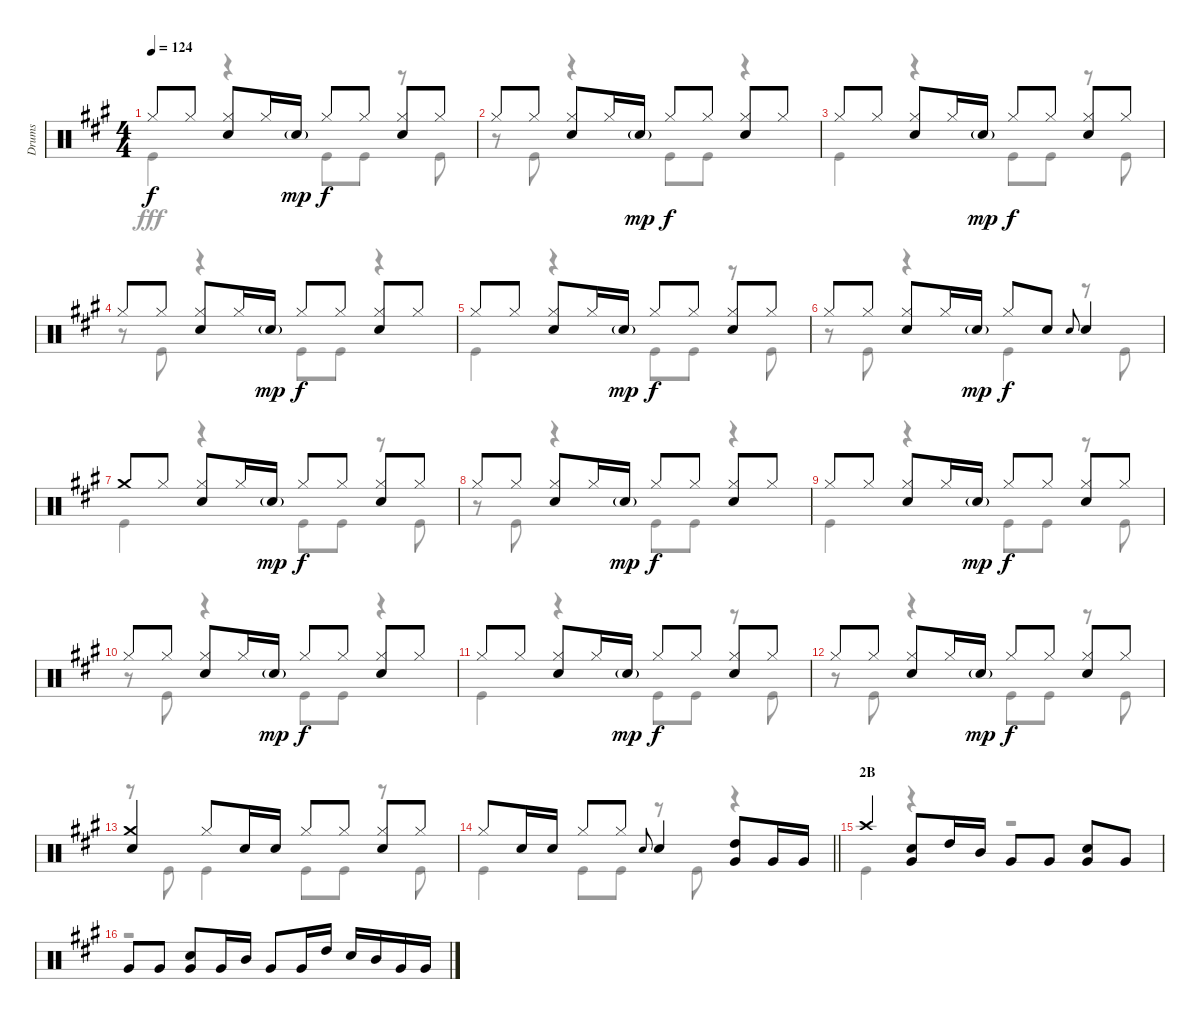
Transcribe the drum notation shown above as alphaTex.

\track ("Drums" "Drums") {instrument percussion}
\staff {score}
\articulation defaults
\voice
\ts (4 4)
\tempo 124
\clef neutral
\ks a "Hi-Hat (closed)".8{dy f} "Hi-Hat (closed)".8
("Hi-Hat (closed)" "Snare (hit) 2").8 "Hi-Hat (closed)".16 "Snare (hit) 2"{g}.16{dy mp} "Hi-Hat (closed)".8{dy f} "Hi-Hat (closed)".8 ("Hi-Hat (closed)" "Snare (hit) 2").8 "Hi-Hat (closed)".8 |
"Hi-Hat (closed)".8 "Hi-Hat (closed)".8 ("Hi-Hat (closed)" "Snare (hit) 2").8 "Hi-Hat (closed)".16 "Snare (hit) 2"{g}.16{dy mp} "Hi-Hat (closed)".8{dy f} "Hi-Hat (closed)".8 ("Hi-Hat (closed)" "Snare (hit) 2").8 "Hi-Hat (closed)".8 |
"Hi-Hat (closed)".8 "Hi-Hat (closed)".8 ("Hi-Hat (closed)" "Snare (hit) 2").8 "Hi-Hat (closed)".16 "Snare (hit) 2"{g}.16{dy mp} "Hi-Hat (closed)".8{dy f} "Hi-Hat (closed)".8 ("Hi-Hat (closed)" "Snare (hit) 2").8 "Hi-Hat (closed)".8 |
"Hi-Hat (closed)".8 "Hi-Hat (closed)".8 ("Hi-Hat (closed)" "Snare (hit) 2").8 "Hi-Hat (closed)".16 "Snare (hit) 2"{g}.16{dy mp} "Hi-Hat (closed)".8{dy f} "Hi-Hat (closed)".8 ("Hi-Hat (closed)" "Snare (hit) 2").8 "Hi-Hat (closed)".8 |
"Hi-Hat (closed)".8 "Hi-Hat (closed)".8 ("Hi-Hat (closed)" "Snare (hit) 2").8 "Hi-Hat (closed)".16 "Snare (hit) 2"{g}.16{dy mp} "Hi-Hat (closed)".8{dy f} "Hi-Hat (closed)".8 ("Hi-Hat (closed)" "Snare (hit) 2").8 "Hi-Hat (closed)".8 |
"Hi-Hat (closed)".8 "Hi-Hat (closed)".8 ("Hi-Hat (closed)" "Snare (hit) 2").8 "Hi-Hat (closed)".16 "Snare (hit) 2"{g}.16{dy mp} "Hi-Hat (closed)".8{dy f} "Snare (hit) 2".8 "Snare (hit) 2".8{gr onbeat} "Snare (hit) 2".4 |
"Crash medium (hit)".8 "Hi-Hat (closed)".8 ("Hi-Hat (closed)" "Snare (hit) 2").8 "Hi-Hat (closed)".16 "Snare (hit) 2"{g}.16{dy mp} "Hi-Hat (closed)".8{dy f} "Hi-Hat (closed)".8 ("Hi-Hat (closed)" "Snare (hit) 2").8 "Hi-Hat (closed)".8 |
"Hi-Hat (closed)".8 "Hi-Hat (closed)".8 ("Hi-Hat (closed)" "Snare (hit) 2").8 "Hi-Hat (closed)".16 "Snare (hit) 2"{g}.16{dy mp} "Hi-Hat (closed)".8{dy f} "Hi-Hat (closed)".8 ("Hi-Hat (closed)" "Snare (hit) 2").8 "Hi-Hat (closed)".8 |
"Hi-Hat (closed)".8 "Hi-Hat (closed)".8 ("Hi-Hat (closed)" "Snare (hit) 2").8 "Hi-Hat (closed)".16 "Snare (hit) 2"{g}.16{dy mp} "Hi-Hat (closed)".8{dy f} "Hi-Hat (closed)".8 ("Hi-Hat (closed)" "Snare (hit) 2").8 "Hi-Hat (closed)".8 |
"Hi-Hat (closed)".8 "Hi-Hat (closed)".8 ("Hi-Hat (closed)" "Snare (hit) 2").8 "Hi-Hat (closed)".16 "Snare (hit) 2"{g}.16{dy mp} "Hi-Hat (closed)".8{dy f} "Hi-Hat (closed)".8 ("Hi-Hat (closed)" "Snare (hit) 2").8 "Hi-Hat (closed)".8 |
"Hi-Hat (closed)".8 "Hi-Hat (closed)".8 ("Hi-Hat (closed)" "Snare (hit) 2").8 "Hi-Hat (closed)".16 "Snare (hit) 2"{g}.16{dy mp} "Hi-Hat (closed)".8{dy f} "Hi-Hat (closed)".8 ("Hi-Hat (closed)" "Snare (hit) 2").8 "Hi-Hat (closed)".8 |
"Hi-Hat (closed)".8 "Hi-Hat (closed)".8 ("Hi-Hat (closed)" "Snare (hit) 2").8 "Hi-Hat (closed)".16 "Snare (hit) 2"{g}.16{dy mp} "Hi-Hat (closed)".8{dy f} "Hi-Hat (closed)".8 ("Hi-Hat (closed)" "Snare (hit) 2").8 "Hi-Hat (closed)".8 |
("Crash medium (hit)" "Snare (hit) 2").4 "Hi-Hat (closed)".8 "Snare (hit) 2".16 "Snare (hit) 2".16 "Hi-Hat (closed)".8 "Hi-Hat (closed)".8 ("Hi-Hat (closed)" "Snare (hit) 2").8 "Hi-Hat (closed)".8 |
\barLineRight lightlight "Hi-Hat (closed)".8 "Snare (hit) 2".16 "Snare (hit) 2".16 "Hi-Hat (closed)".8 "Hi-Hat (closed)".8 "Snare (hit) 2".8{gr onbeat} "Snare (hit) 2".4
("High Tom (hit)" "Very Low Tom (hit)").8 "Very Low Tom (hit)".16 "Very Low Tom (hit)".16 |
\section ("" "2B")
"Crash high (hit)".4 ("Snare (hit) 2" "Very Low Tom (hit)").8 "High Tom (hit)".16 "Mid Tom (hit)".16 "Very Low Tom (hit)".8 "Very Low Tom (hit)".8 ("Very Low Tom (hit)" "Snare (hit) 2").8 "Very Low Tom (hit)".8 |
"Very Low Tom (hit)".8 "Very Low Tom (hit)".8 ("Snare (hit) 2" "Very Low Tom (hit)").8 "Very Low Tom (hit)".16 "Mid Tom (hit)".16 "Very Low Tom (hit)".8 "Very Low Tom (hit)".16 "High Tom (hit)".16 "Snare (hit) 2".16 "Mid Tom (hit)".16 "Very Low Tom (hit)".16 "Very Low Tom (hit)".16
\voice
\clef neutral
\ottava regular
\simile none
\ks a "Kick (hit)".4{dy fff}
r.4 "Kick (hit)".8 "Kick (hit)".8 r.8 "Kick (hit)".8 |
r.8 "Kick (hit)".8 r.4 "Kick (hit)".8 "Kick (hit)".8 r.4 |
"Kick (hit)".4 r.4 "Kick (hit)".8 "Kick (hit)".8 r.8 "Kick (hit)".8 |
r.8 "Kick (hit)".8 r.4 "Kick (hit)".8 "Kick (hit)".8 r.4 |
"Kick (hit)".4 r.4 "Kick (hit)".8 "Kick (hit)".8 r.8 "Kick (hit)".8 |
r.8 "Kick (hit)".8 r.4 "Kick (hit)".4 r.8 "Kick (hit)".8 |
"Kick (hit)".4 r.4 "Kick (hit)".8 "Kick (hit)".8 r.8 "Kick (hit)".8 |
r.8 "Kick (hit)".8 r.4 "Kick (hit)".8 "Kick (hit)".8 r.4 |
"Kick (hit)".4 r.4 "Kick (hit)".8 "Kick (hit)".8 r.8 "Kick (hit)".8 |
r.8 "Kick (hit)".8 r.4 "Kick (hit)".8 "Kick (hit)".8 r.4 |
"Kick (hit)".4 r.4 "Kick (hit)".8 "Kick (hit)".8 r.8 "Kick (hit)".8 |
r.8 "Kick (hit)".8 r.4 "Kick (hit)".8 "Kick (hit)".8 r.8 "Kick (hit)".8 |
r.8 "Kick (hit)".8 "Kick (hit)".4 "Kick (hit)".8 "Kick (hit)".8 r.8 "Kick (hit)".8 |
\barLineRight lightlight "Kick (hit)".4 "Kick (hit)".8 "Kick (hit)".8
r.8 "Kick (hit)".8 r.4 |
"Kick (hit)".4 r.4 r.2 |
r.1
